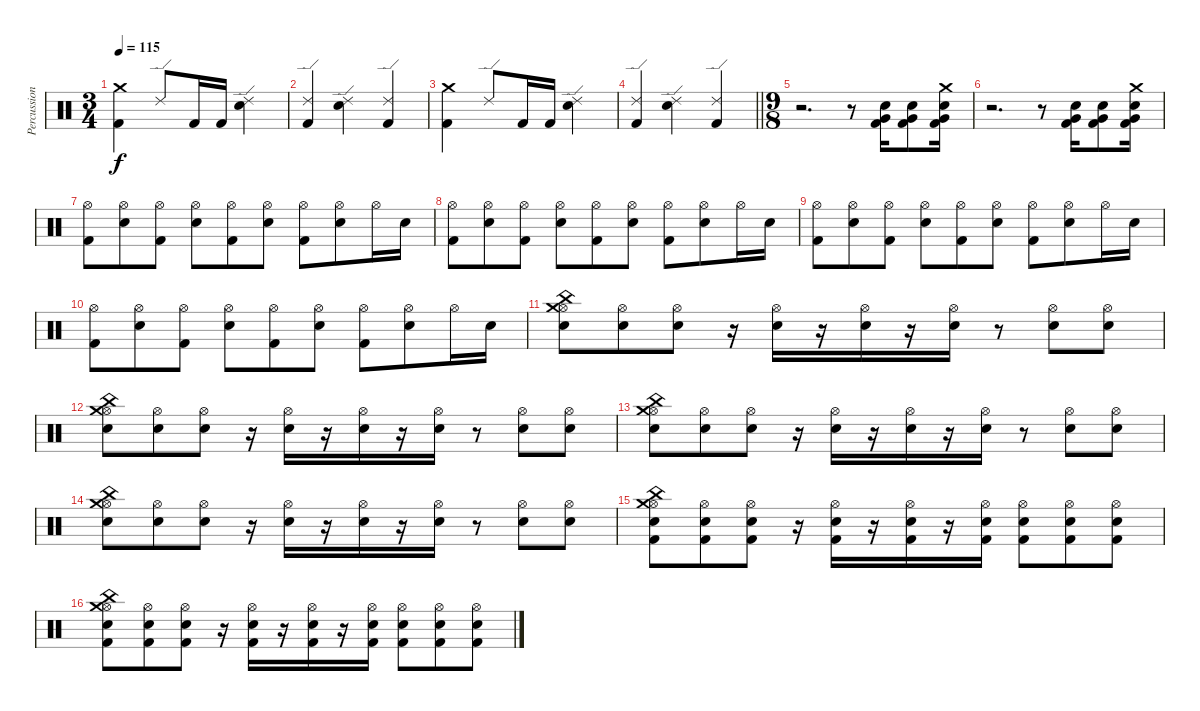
\track ("Percussion" "Percussion") {instrument percussion}
\staff {score}
\articulation defaults
\ts (3 4)
\tempo 115
\clef neutral
\ks c
("Crash medium (hit)" "Kick (hit) 2").4{dy f} "Ride (edge) 2".8 "Kick (hit) 2".16 "Kick (hit) 2".16 ("Ride (edge) 2" "Electric Snare (hit)").4 |
("Ride (edge) 2" "Kick (hit) 2").4 ("Ride (edge) 2" "Electric Snare (hit)").4 ("Ride (edge) 2" "Kick (hit) 2").4 |
("Crash medium (hit)" "Kick (hit) 2").4 "Ride (edge) 2".8 "Kick (hit) 2".16 "Kick (hit) 2".16 ("Ride (edge) 2" "Electric Snare (hit)").4 |
\barLineRight lightlight
("Ride (edge) 2" "Kick (hit) 2").4 ("Ride (edge) 2" "Electric Snare (hit)").4 ("Ride (edge) 2" "Kick (hit) 2").4 |
\ts (9 8)
r.2{d} r.8 ("Electric Snare (hit)" "Very Low Tom (hit)" "Kick (hit) 2").16 ("Electric Snare (hit)" "Very Low Tom (hit)" "Kick (hit) 2").8 ("Crash medium (hit)" "Electric Snare (hit)" "Very Low Tom (hit)" "Kick (hit) 2").16 |
r.2{d} r.8 ("Electric Snare (hit)" "Very Low Tom (hit)" "Kick (hit) 2").16 ("Electric Snare (hit)" "Very Low Tom (hit)" "Kick (hit) 2").8 ("Crash medium (hit)" "Electric Snare (hit)" "Very Low Tom (hit)" "Kick (hit) 2").16 |
("Hi-Hat (open)" "Kick (hit) 2").8 ("Hi-Hat (open)" "Electric Snare (hit)").8 ("Hi-Hat (open)" "Kick (hit) 2").8 ("Hi-Hat (open)" "Electric Snare (hit)").8 ("Hi-Hat (open)" "Kick (hit) 2").8 ("Hi-Hat (open)" "Electric Snare (hit)").8 ("Hi-Hat (open)" "Kick (hit) 2").8 ("Hi-Hat (open)" "Electric Snare (hit)").8 "Hi-Hat (open)".16 "Electric Snare (hit)".16 |
("Hi-Hat (open)" "Kick (hit) 2").8 ("Hi-Hat (open)" "Electric Snare (hit)").8 ("Hi-Hat (open)" "Kick (hit) 2").8 ("Hi-Hat (open)" "Electric Snare (hit)").8 ("Hi-Hat (open)" "Kick (hit) 2").8 ("Hi-Hat (open)" "Electric Snare (hit)").8 ("Hi-Hat (open)" "Kick (hit) 2").8 ("Hi-Hat (open)" "Electric Snare (hit)").8 "Hi-Hat (open)".16 "Electric Snare (hit)".16 |
("Hi-Hat (open)" "Kick (hit) 2").8 ("Hi-Hat (open)" "Electric Snare (hit)").8 ("Hi-Hat (open)" "Kick (hit) 2").8 ("Hi-Hat (open)" "Electric Snare (hit)").8 ("Hi-Hat (open)" "Kick (hit) 2").8 ("Hi-Hat (open)" "Electric Snare (hit)").8 ("Hi-Hat (open)" "Kick (hit) 2").8 ("Hi-Hat (open)" "Electric Snare (hit)").8 "Hi-Hat (open)".16 "Electric Snare (hit)".16 |
("Hi-Hat (open)" "Kick (hit) 2").8 ("Hi-Hat (open)" "Electric Snare (hit)").8 ("Hi-Hat (open)" "Kick (hit) 2").8 ("Hi-Hat (open)" "Electric Snare (hit)").8 ("Hi-Hat (open)" "Kick (hit) 2").8 ("Hi-Hat (open)" "Electric Snare (hit)").8 ("Hi-Hat (open)" "Kick (hit) 2").8 ("Hi-Hat (open)" "Electric Snare (hit)").8 "Hi-Hat (open)".16 "Electric Snare (hit)".16 |
("Hi-Hat (open)" "Crash medium (hit)" "Electric Snare (hit)" "China (hit)").8 ("Hi-Hat (open)" "Electric Snare (hit)").8 ("Hi-Hat (open)" "Electric Snare (hit)").8 r.16 ("Hi-Hat (open)" "Electric Snare (hit)").16 r.16 ("Hi-Hat (open)" "Electric Snare (hit)").16 r.16 ("Hi-Hat (open)" "Electric Snare (hit)").16 r.8 ("Hi-Hat (open)" "Electric Snare (hit)").8 ("Hi-Hat (open)" "Electric Snare (hit)").8 |
("Hi-Hat (open)" "Crash medium (hit)" "Electric Snare (hit)" "China (hit)").8 ("Hi-Hat (open)" "Electric Snare (hit)").8 ("Hi-Hat (open)" "Electric Snare (hit)").8 r.16 ("Hi-Hat (open)" "Electric Snare (hit)").16 r.16 ("Hi-Hat (open)" "Electric Snare (hit)").16 r.16 ("Hi-Hat (open)" "Electric Snare (hit)").16 r.8 ("Hi-Hat (open)" "Electric Snare (hit)").8 ("Hi-Hat (open)" "Electric Snare (hit)").8 |
("Hi-Hat (open)" "Crash medium (hit)" "Electric Snare (hit)" "China (hit)").8 ("Hi-Hat (open)" "Electric Snare (hit)").8 ("Hi-Hat (open)" "Electric Snare (hit)").8 r.16 ("Hi-Hat (open)" "Electric Snare (hit)").16 r.16 ("Hi-Hat (open)" "Electric Snare (hit)").16 r.16 ("Hi-Hat (open)" "Electric Snare (hit)").16 r.8 ("Hi-Hat (open)" "Electric Snare (hit)").8 ("Hi-Hat (open)" "Electric Snare (hit)").8 |
("Hi-Hat (open)" "Crash medium (hit)" "Electric Snare (hit)" "China (hit)").8 ("Hi-Hat (open)" "Electric Snare (hit)").8 ("Hi-Hat (open)" "Electric Snare (hit)").8 r.16 ("Hi-Hat (open)" "Electric Snare (hit)").16 r.16 ("Hi-Hat (open)" "Electric Snare (hit)").16 r.16 ("Hi-Hat (open)" "Electric Snare (hit)").16 r.8 ("Hi-Hat (open)" "Electric Snare (hit)").8 ("Hi-Hat (open)" "Electric Snare (hit)").8 |
("Hi-Hat (open)" "Crash medium (hit)" "Electric Snare (hit)" "China (hit)" "Kick (hit) 2").8 ("Hi-Hat (open)" "Electric Snare (hit)" "Kick (hit) 2").8 ("Hi-Hat (open)" "Electric Snare (hit)" "Kick (hit) 2").8 r.16 ("Hi-Hat (open)" "Electric Snare (hit)" "Kick (hit) 2").16 r.16 ("Hi-Hat (open)" "Electric Snare (hit)" "Kick (hit) 2").16 r.16 ("Hi-Hat (open)" "Electric Snare (hit)" "Kick (hit) 2").16 ("Hi-Hat (open)" "Electric Snare (hit)" "Kick (hit) 2").8 ("Hi-Hat (open)" "Electric Snare (hit)" "Kick (hit) 2").8 ("Hi-Hat (open)" "Electric Snare (hit)" "Kick (hit) 2").8 |
("Hi-Hat (open)" "Crash medium (hit)" "Electric Snare (hit)" "China (hit)" "Kick (hit) 2").8 ("Hi-Hat (open)" "Electric Snare (hit)" "Kick (hit) 2").8 ("Hi-Hat (open)" "Electric Snare (hit)" "Kick (hit) 2").8 r.16 ("Hi-Hat (open)" "Electric Snare (hit)" "Kick (hit) 2").16 r.16 ("Hi-Hat (open)" "Electric Snare (hit)" "Kick (hit) 2").16 r.16 ("Hi-Hat (open)" "Electric Snare (hit)" "Kick (hit) 2").16 ("Hi-Hat (open)" "Electric Snare (hit)" "Kick (hit) 2").8 ("Hi-Hat (open)" "Electric Snare (hit)" "Kick (hit) 2").8 ("Hi-Hat (open)" "Electric Snare (hit)" "Kick (hit) 2").8
